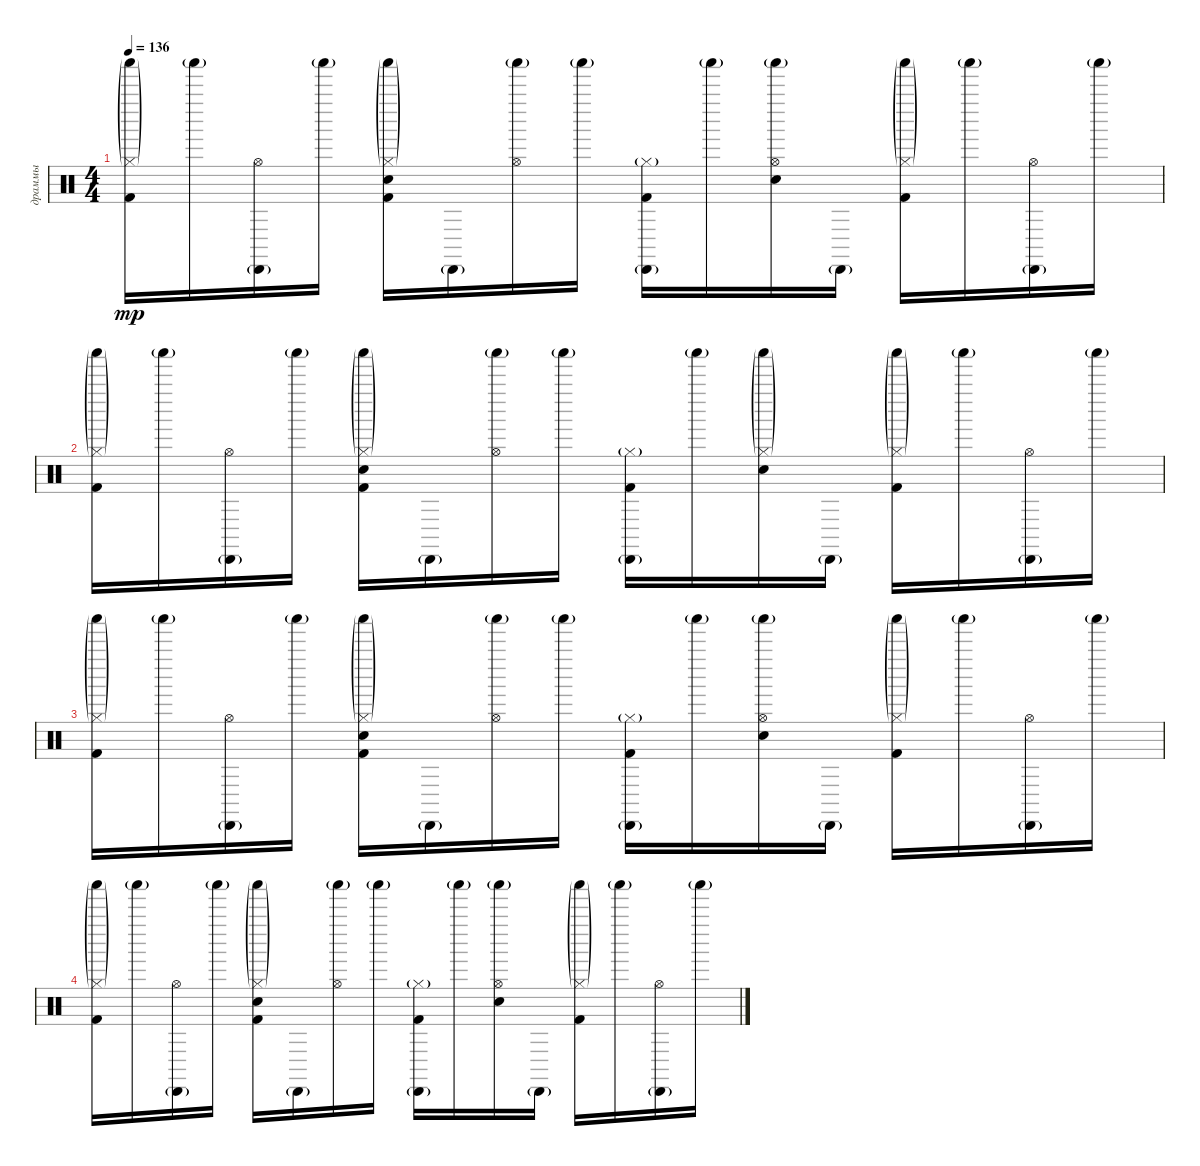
\track ("драммы" "драммы") {instrument percussion}
\staff {score}
\articulation defaults
\ts (4 4)
\tempo 136
\clef neutral
\ks c
("Shaker (hit)"{g} "Kick (hit) 2" "Hi-Hat (closed)"{g}).16{dy mp} "Shaker (hit)"{g}.16 ("Cabasa (hit)"{g} "Hi-Hat (open)").16 "Shaker (hit)"{g}.16 ("Shaker (hit)"{g} "Snare (hit) 2" "Kick (hit) 2" "Hi-Hat (closed)"{g}).16 "Cabasa (hit)"{g}.16 ("Shaker (hit)"{g} "Hi-Hat (open)").16 "Shaker (hit)"{g}.16 ("Cabasa (hit)"{g} "Kick (hit) 2" "Hi-Hat (closed)"{g}).16 "Shaker (hit)"{g}.16 ("Shaker (hit)"{g} "Snare (hit) 2" "Hi-Hat (open)").16 "Cabasa (hit)"{g}.16 ("Shaker (hit)"{g} "Kick (hit) 2" "Hi-Hat (closed)"{g}).16 "Shaker (hit)"{g}.16 ("Cabasa (hit)"{g} "Hi-Hat (open)").16 "Shaker (hit)"{g}.16 |
("Shaker (hit)"{g} "Kick (hit) 2" "Hi-Hat (closed)"{g}).16 "Shaker (hit)"{g}.16 ("Cabasa (hit)"{g} "Hi-Hat (open)").16 "Shaker (hit)"{g}.16 ("Shaker (hit)"{g} "Snare (hit) 2" "Kick (hit) 2" "Hi-Hat (closed)"{g}).16 "Cabasa (hit)"{g}.16 ("Shaker (hit)"{g} "Hi-Hat (open)").16 "Shaker (hit)"{g}.16 ("Cabasa (hit)"{g} "Kick (hit) 2" "Hi-Hat (closed)"{g}).16 "Shaker (hit)"{g}.16 ("Shaker (hit)"{g} "Snare (hit) 2" "Hi-Hat (closed)"{g}).16 "Cabasa (hit)"{g}.16 ("Shaker (hit)"{g} "Kick (hit) 2" "Hi-Hat (closed)"{g}).16 "Shaker (hit)"{g}.16 ("Cabasa (hit)"{g} "Hi-Hat (open)").16 "Shaker (hit)"{g}.16 |
("Shaker (hit)"{g} "Kick (hit) 2" "Hi-Hat (closed)"{g}).16 "Shaker (hit)"{g}.16 ("Cabasa (hit)"{g} "Hi-Hat (open)").16 "Shaker (hit)"{g}.16 ("Shaker (hit)"{g} "Snare (hit) 2" "Kick (hit) 2" "Hi-Hat (closed)"{g}).16 "Cabasa (hit)"{g}.16 ("Shaker (hit)"{g} "Hi-Hat (open)").16 "Shaker (hit)"{g}.16 ("Cabasa (hit)"{g} "Kick (hit) 2" "Hi-Hat (closed)"{g}).16 "Shaker (hit)"{g}.16 ("Shaker (hit)"{g} "Snare (hit) 2" "Hi-Hat (open)").16 "Cabasa (hit)"{g}.16 ("Shaker (hit)"{g} "Kick (hit) 2" "Hi-Hat (closed)"{g}).16 "Shaker (hit)"{g}.16 ("Cabasa (hit)"{g} "Hi-Hat (open)").16 "Shaker (hit)"{g}.16 |
("Shaker (hit)"{g} "Kick (hit) 2" "Hi-Hat (closed)"{g}).16 "Shaker (hit)"{g}.16 ("Cabasa (hit)"{g} "Hi-Hat (open)").16 "Shaker (hit)"{g}.16 ("Shaker (hit)"{g} "Snare (hit) 2" "Kick (hit) 2" "Hi-Hat (closed)"{g}).16 "Cabasa (hit)"{g}.16 ("Shaker (hit)"{g} "Hi-Hat (open)").16 "Shaker (hit)"{g}.16 ("Cabasa (hit)"{g} "Kick (hit) 2" "Hi-Hat (closed)"{g}).16 "Shaker (hit)"{g}.16 ("Shaker (hit)"{g} "Snare (hit) 2" "Hi-Hat (open)").16 "Cabasa (hit)"{g}.16 ("Shaker (hit)"{g} "Kick (hit) 2" "Hi-Hat (closed)"{g}).16 "Shaker (hit)"{g}.16 ("Cabasa (hit)"{g} "Hi-Hat (open)").16 "Shaker (hit)"{g}.16
